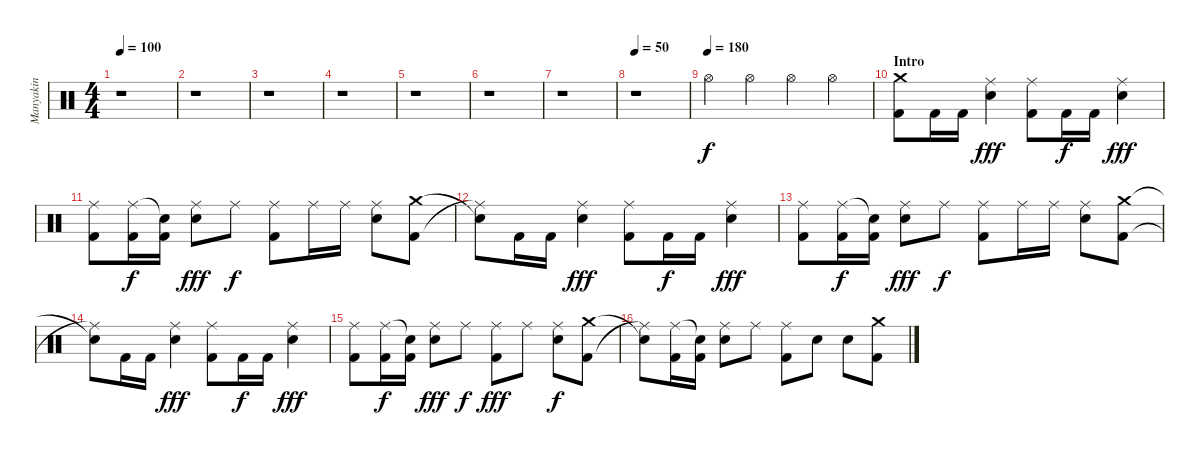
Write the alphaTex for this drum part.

\track ("Manyakin" "Manyakin") {instrument percussion}
\staff {score}
\articulation defaults
\ts (4 4)
\tempo 100
\clef neutral
\ks c
r.1{dy f} |
r.1 |
r.1 |
r.1 |
r.1 |
r.1 |
r.1 |
\tempo 50
r.1 |
\tempo (180)
"Hi-Hat (open)".4 "Hi-Hat (open)".4 "Hi-Hat (open)".4 "Hi-Hat (open)".4 |
\section ("" "Intro ")
("Kick (hit) 2" "Crash medium (hit)").8 "Kick (hit) 2".16 "Kick (hit) 2".16 ("Snare (hit) 2" "Ride (middle)").4{dy fff} ("Kick (hit) 2" "Ride (middle)").8 "Kick (hit) 2".16{dy f} "Kick (hit) 2".16 ("Snare (hit) 2" "Ride (middle)").4{dy fff} |
("Kick (hit) 2" "Ride (middle)").8 ("Kick (hit) 2" "Ride (middle)").16{dy f} ("Kick (hit) 2" "Snare (hit)"{t}).16 ("Snare (hit) 2" "Ride (middle)").8{dy fff} "Ride (middle)".8{dy f} ("Kick (hit) 2" "Ride (middle)").8 "Ride (middle)".16 "Ride (middle)".16 ("Snare (hit) 2" "Ride (middle)").8 ("Kick (hit) 2" "Crash medium (hit)").8 |
("Ride (middle)"{t} "Snare (hit)"{t}).8 "Kick (hit) 2".16 "Kick (hit) 2".16 ("Snare (hit) 2" "Ride (middle)").4{dy fff} ("Kick (hit) 2" "Ride (middle)").8 "Kick (hit) 2".16{dy f} "Kick (hit) 2".16 ("Snare (hit) 2" "Ride (middle)").4{dy fff} |
("Kick (hit) 2" "Ride (middle)").8 ("Kick (hit) 2" "Ride (middle)").16{dy f} ("Kick (hit) 2" "Snare (hit)"{t}).16 ("Snare (hit) 2" "Ride (middle)").8{dy fff} "Ride (middle)".8{dy f} ("Kick (hit) 2" "Ride (middle)").8 "Ride (middle)".16 "Ride (middle)".16 ("Snare (hit) 2" "Ride (middle)").8 ("Kick (hit) 2" "Crash medium (hit)").8 |
("Ride (middle)"{t} "Snare (hit)"{t}).8 "Kick (hit) 2".16 "Kick (hit) 2".16 ("Snare (hit) 2" "Ride (middle)").4{dy fff} ("Kick (hit) 2" "Ride (middle)").8 "Kick (hit) 2".16{dy f} "Kick (hit) 2".16 ("Snare (hit) 2" "Ride (middle)").4{dy fff} |
("Kick (hit) 2" "Ride (middle)").8 ("Kick (hit) 2" "Ride (middle)").16{dy f} ("Kick (hit) 2" "Snare (hit)"{t}).16 ("Snare (hit) 2" "Ride (middle)").8{dy fff} "Ride (middle)".8{dy f} ("Kick (hit) 2" "Ride (middle)").8{dy fff} "Ride (middle)".8 ("Snare (hit) 2" "Ride (middle)").8{dy f} ("Kick (hit) 2" "Crash medium (hit)").8 |
("Ride (middle)"{t} "Snare (hit)"{t}).8 ("Kick (hit) 2" "Ride (middle)").16 ("Kick (hit) 2" "Snare (hit)"{t}).16 ("Snare (hit) 2" "Ride (middle)").8 "Ride (middle)".8 ("Kick (hit) 2" "Ride (middle)").8 "Snare (hit) 2".8 "Snare (hit) 2".8 ("Kick (hit) 2" "Crash medium (hit)").8
